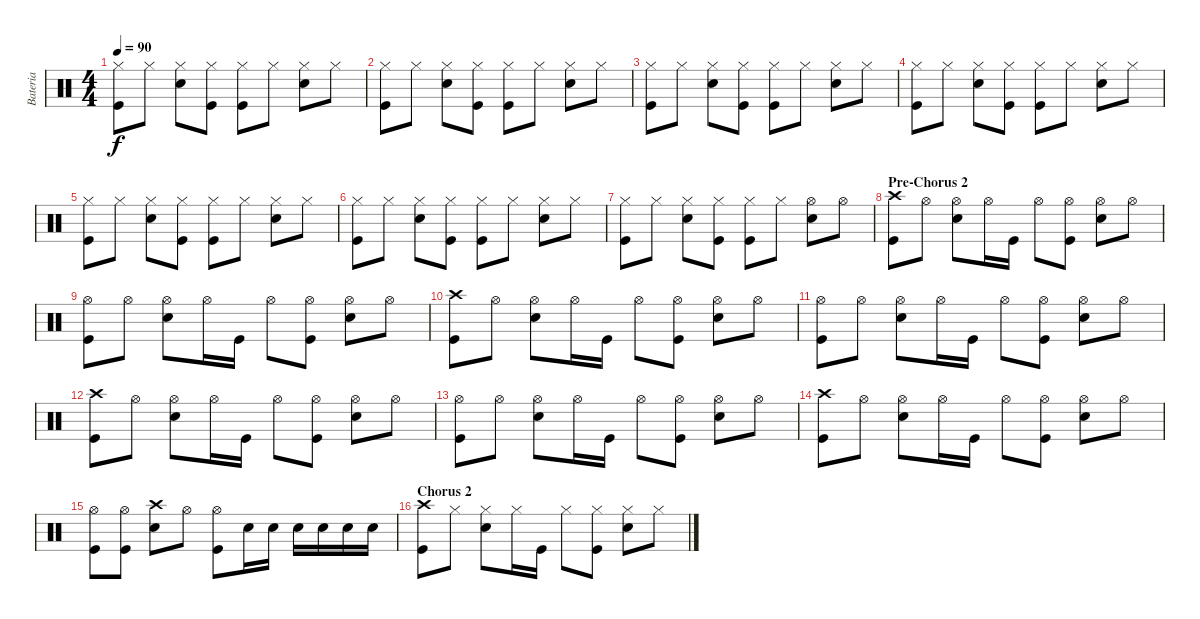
\track ("Bateria" "Bateria") {instrument percussion}
\staff {score}
\articulation defaults
\ts (4 4)
\tempo 90
\clef neutral
\ks c
("Hi-Hat (closed)" "Kick (hit)").8{dy f} "Hi-Hat (closed)".8 ("Hi-Hat (closed)" "Snare (hit) 2").8 ("Hi-Hat (closed)" "Kick (hit)").8 ("Hi-Hat (closed)" "Kick (hit)").8 "Hi-Hat (closed)".8 ("Hi-Hat (closed)" "Snare (hit) 2").8 "Hi-Hat (closed)".8 |
("Hi-Hat (closed)" "Kick (hit)").8 "Hi-Hat (closed)".8 ("Hi-Hat (closed)" "Snare (hit) 2").8 ("Hi-Hat (closed)" "Kick (hit)").8 ("Hi-Hat (closed)" "Kick (hit)").8 "Hi-Hat (closed)".8 ("Hi-Hat (closed)" "Snare (hit) 2").8 "Hi-Hat (closed)".8 |
("Hi-Hat (closed)" "Kick (hit)").8 "Hi-Hat (closed)".8 ("Hi-Hat (closed)" "Snare (hit) 2").8 ("Hi-Hat (closed)" "Kick (hit)").8 ("Hi-Hat (closed)" "Kick (hit)").8 "Hi-Hat (closed)".8 ("Hi-Hat (closed)" "Snare (hit) 2").8 "Hi-Hat (closed)".8 |
("Hi-Hat (closed)" "Kick (hit)").8 "Hi-Hat (closed)".8 ("Hi-Hat (closed)" "Snare (hit) 2").8 ("Hi-Hat (closed)" "Kick (hit)").8 ("Hi-Hat (closed)" "Kick (hit)").8 "Hi-Hat (closed)".8 ("Hi-Hat (closed)" "Snare (hit) 2").8 "Hi-Hat (closed)".8 |
("Hi-Hat (closed)" "Kick (hit)").8 "Hi-Hat (closed)".8 ("Hi-Hat (closed)" "Snare (hit) 2").8 ("Hi-Hat (closed)" "Kick (hit)").8 ("Hi-Hat (closed)" "Kick (hit)").8 "Hi-Hat (closed)".8 ("Hi-Hat (closed)" "Snare (hit) 2").8 "Hi-Hat (closed)".8 |
("Hi-Hat (closed)" "Kick (hit)").8 "Hi-Hat (closed)".8 ("Hi-Hat (closed)" "Snare (hit) 2").8 ("Hi-Hat (closed)" "Kick (hit)").8 ("Hi-Hat (closed)" "Kick (hit)").8 "Hi-Hat (closed)".8 ("Hi-Hat (closed)" "Snare (hit) 2").8 "Hi-Hat (closed)".8 |
("Hi-Hat (closed)" "Kick (hit)").8 "Hi-Hat (closed)".8 ("Hi-Hat (closed)" "Snare (hit) 2").8 ("Hi-Hat (closed)" "Kick (hit)").8 ("Hi-Hat (closed)" "Kick (hit)").8 "Hi-Hat (closed)".8 ("Hi-Hat (open)" "Snare (hit) 2").8 "Hi-Hat (open)".8 |
\section ("" "Pre-Chorus 2")
("Crash high (hit)" "Kick (hit)").8 "Hi-Hat (open)".8 ("Hi-Hat (open)" "Snare (hit) 2").8 "Hi-Hat (open)".16 "Kick (hit)".16 "Hi-Hat (open)".8 ("Hi-Hat (open)" "Kick (hit)").8 ("Hi-Hat (open)" "Snare (hit) 2").8 "Hi-Hat (open)".8 |
("Hi-Hat (open)" "Kick (hit)").8 "Hi-Hat (open)".8 ("Hi-Hat (open)" "Snare (hit) 2").8 "Hi-Hat (open)".16 "Kick (hit)".16 "Hi-Hat (open)".8 ("Hi-Hat (open)" "Kick (hit)").8 ("Hi-Hat (open)" "Snare (hit) 2").8 "Hi-Hat (open)".8 |
("Crash high (hit)" "Kick (hit)").8 "Hi-Hat (open)".8 ("Hi-Hat (open)" "Snare (hit) 2").8 "Hi-Hat (open)".16 "Kick (hit)".16 "Hi-Hat (open)".8 ("Hi-Hat (open)" "Kick (hit)").8 ("Hi-Hat (open)" "Snare (hit) 2").8 "Hi-Hat (open)".8 |
("Hi-Hat (open)" "Kick (hit)").8 "Hi-Hat (open)".8 ("Hi-Hat (open)" "Snare (hit) 2").8 "Hi-Hat (open)".16 "Kick (hit)".16 "Hi-Hat (open)".8 ("Hi-Hat (open)" "Kick (hit)").8 ("Hi-Hat (open)" "Snare (hit) 2").8 "Hi-Hat (open)".8 |
("Crash high (hit)" "Kick (hit)").8 "Hi-Hat (open)".8 ("Hi-Hat (open)" "Snare (hit) 2").8 "Hi-Hat (open)".16 "Kick (hit)".16 "Hi-Hat (open)".8 ("Hi-Hat (open)" "Kick (hit)").8 ("Hi-Hat (open)" "Snare (hit) 2").8 "Hi-Hat (open)".8 |
("Hi-Hat (open)" "Kick (hit)").8 "Hi-Hat (open)".8 ("Hi-Hat (open)" "Snare (hit) 2").8 "Hi-Hat (open)".16 "Kick (hit)".16 "Hi-Hat (open)".8 ("Hi-Hat (open)" "Kick (hit)").8 ("Hi-Hat (open)" "Snare (hit) 2").8 "Hi-Hat (open)".8 |
("Crash high (hit)" "Kick (hit)").8 "Hi-Hat (open)".8 ("Hi-Hat (open)" "Snare (hit) 2").8 "Hi-Hat (open)".16 "Kick (hit)".16 "Hi-Hat (open)".8 ("Hi-Hat (open)" "Kick (hit)").8 ("Hi-Hat (open)" "Snare (hit) 2").8 "Hi-Hat (open)".8 |
("Hi-Hat (open)" "Kick (hit)").8 ("Hi-Hat (open)" "Kick (hit)").8 ("Crash high (hit)" "Snare (hit) 2").8 "Hi-Hat (open)".8 ("Hi-Hat (open)" "Kick (hit)").8 "Snare (hit) 2".16 "Snare (hit) 2".16 "Snare (hit) 2".16 "Snare (hit) 2".16 "Snare (hit) 2".16 "Snare (hit) 2".16 |
\section ("" "Chorus 2")
("Crash high (hit)" "Kick (hit)").8 "Hi-Hat (closed)".8 ("Hi-Hat (closed)" "Snare (hit) 2").8 "Hi-Hat (closed)".16 "Kick (hit)".16 "Hi-Hat (closed)".8 ("Hi-Hat (closed)" "Kick (hit)").8 ("Hi-Hat (closed)" "Snare (hit) 2").8 "Hi-Hat (closed)".8
